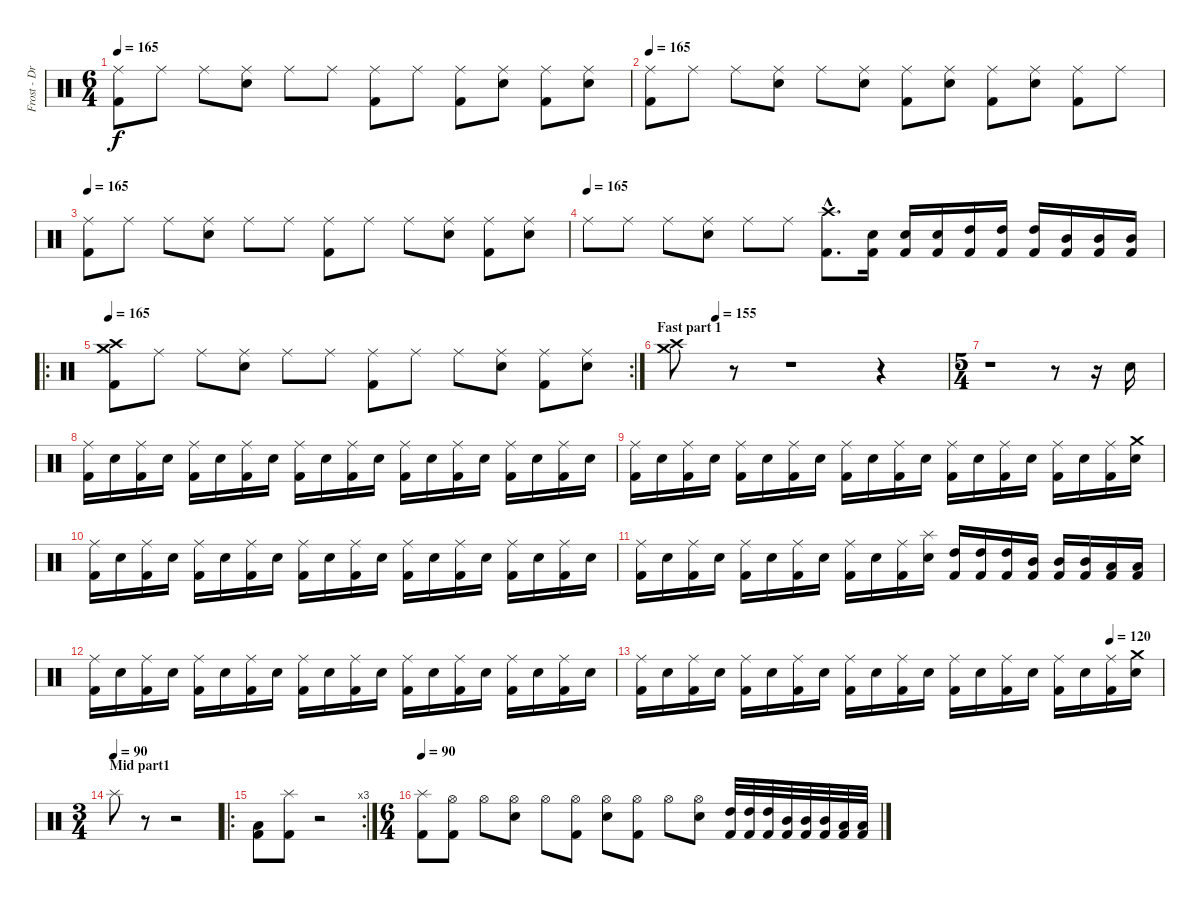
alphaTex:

\track ("Frost - Drums" "Frost - Dr") {instrument percussion}
\staff {score}
\articulation defaults
\ts (6 4)
\tempo 165
\clef neutral
\ks c
("Ride (middle)" "Kick (hit) 2").8{dy f} "Ride (middle)".8 "Ride (middle)".8 ("Ride (middle)" "Electric Snare (hit)").8 "Ride (middle)".8 "Ride (middle)".8 ("Ride (middle)" "Kick (hit) 2").8 "Ride (middle)".8 ("Ride (middle)" "Kick (hit) 2").8 ("Ride (middle)" "Electric Snare (hit)").8 ("Ride (middle)" "Kick (hit) 2").8 ("Ride (middle)" "Electric Snare (hit)").8 |
\tempo 165
("Ride (middle)" "Kick (hit) 2").8 "Ride (middle)".8 "Ride (middle)".8 ("Ride (middle)" "Electric Snare (hit)").8 "Ride (middle)".8 ("Ride (middle)" "Electric Snare (hit)").8 ("Ride (middle)" "Kick (hit) 2").8 ("Ride (middle)" "Electric Snare (hit)").8 ("Ride (middle)" "Kick (hit) 2").8 ("Ride (middle)" "Electric Snare (hit)").8 ("Ride (middle)" "Kick (hit) 2").8 "Ride (middle)".8 |
\tempo 165
("Ride (middle)" "Kick (hit) 2").8 "Ride (middle)".8 "Ride (middle)".8 ("Ride (middle)" "Electric Snare (hit)").8 "Ride (middle)".8 "Ride (middle)".8 ("Ride (middle)" "Kick (hit) 2").8 "Ride (middle)".8 "Ride (middle)".8 ("Ride (middle)" "Electric Snare (hit)").8 ("Ride (middle)" "Kick (hit) 2").8 ("Ride (middle)" "Electric Snare (hit)").8 |
\tempo (165)
"Ride (middle)".8 "Ride (middle)".8 "Ride (middle)".8 ("Ride (middle)" "Electric Snare (hit)").8 "Ride (middle)".8 "Ride (middle)".8 ("Crash high (hit)"{hac} "Kick (hit) 2"{hac}).8{d} ("Electric Snare (hit)" "Kick (hit) 2").16 ("Electric Snare (hit)" "Kick (hit) 2").16 ("Electric Snare (hit)" "Kick (hit) 2").16 ("High Tom (hit)" "Kick (hit) 2").16 ("High Tom (hit)" "Kick (hit) 2").16 ("High Tom (hit)" "Kick (hit) 2").16 ("Mid Tom (hit)" "Kick (hit) 2").16 ("Mid Tom (hit)" "Kick (hit) 2").16 ("Mid Tom (hit)" "Kick (hit) 2").16 |
\ro
\rc 2
\tempo 165
("Crash medium (hit)" "Crash high (hit)" "Kick (hit) 2").8 "Ride (middle)".8 "Ride (middle)".8 ("Ride (middle)" "Electric Snare (hit)").8 "Ride (middle)".8 "Ride (middle)".8 ("Ride (middle)" "Kick (hit) 2").8 "Ride (middle)".8 "Ride (middle)".8 ("Ride (middle)" "Electric Snare (hit)").8 ("Ride (middle)" "Kick (hit) 2").8 ("Ride (middle)" "Electric Snare (hit)").8 |
\section ("" "Fast part 1")
\tempo (155 0.16666666666666666)
("Crash high (hit)" "Crash medium (hit)").8 r.8 r.1 r.4 |
\ts (5 4)
r.1 r.8 r.16 "Electric Snare (hit)".16 |
("Ride (middle)" "Kick (hit) 2").16 "Electric Snare (hit)".16 ("Ride (middle)" "Kick (hit) 2").16 "Electric Snare (hit)".16 ("Ride (middle)" "Kick (hit) 2").16 "Electric Snare (hit)".16 ("Ride (middle)" "Kick (hit) 2").16 "Electric Snare (hit)".16 ("Ride (middle)" "Kick (hit) 2").16 "Electric Snare (hit)".16 ("Ride (middle)" "Kick (hit) 2").16 "Electric Snare (hit)".16 ("Ride (middle)" "Kick (hit) 2").16 "Electric Snare (hit)".16 ("Ride (middle)" "Kick (hit) 2").16 "Electric Snare (hit)".16 ("Ride (middle)" "Kick (hit) 2").16 "Electric Snare (hit)".16 ("Ride (middle)" "Kick (hit) 2").16 "Electric Snare (hit)".16 |
("Ride (middle)" "Kick (hit) 2").16 "Electric Snare (hit)".16 ("Ride (middle)" "Kick (hit) 2").16 "Electric Snare (hit)".16 ("Ride (middle)" "Kick (hit) 2").16 "Electric Snare (hit)".16 ("Ride (middle)" "Kick (hit) 2").16 "Electric Snare (hit)".16 ("Ride (middle)" "Kick (hit) 2").16 "Electric Snare (hit)".16 ("Ride (middle)" "Kick (hit) 2").16 "Electric Snare (hit)".16 ("Ride (middle)" "Kick (hit) 2").16 "Electric Snare (hit)".16 ("Ride (middle)" "Kick (hit) 2").16 "Electric Snare (hit)".16 ("Ride (middle)" "Kick (hit) 2").16 "Electric Snare (hit)".16 ("Ride (middle)" "Kick (hit) 2").16 ("Crash medium (hit)" "Electric Snare (hit)").16 |
("Ride (middle)" "Kick (hit) 2").16 "Electric Snare (hit)".16 ("Ride (middle)" "Kick (hit) 2").16 "Electric Snare (hit)".16 ("Ride (middle)" "Kick (hit) 2").16 "Electric Snare (hit)".16 ("Ride (middle)" "Kick (hit) 2").16 "Electric Snare (hit)".16 ("Ride (middle)" "Kick (hit) 2").16 "Electric Snare (hit)".16 ("Ride (middle)" "Kick (hit) 2").16 "Electric Snare (hit)".16 ("Ride (middle)" "Kick (hit) 2").16 "Electric Snare (hit)".16 ("Ride (middle)" "Kick (hit) 2").16 "Electric Snare (hit)".16 ("Ride (middle)" "Kick (hit) 2").16 "Electric Snare (hit)".16 ("Ride (middle)" "Kick (hit) 2").16 "Electric Snare (hit)".16 |
("Ride (middle)" "Kick (hit) 2").16 "Electric Snare (hit)".16 ("Ride (middle)" "Kick (hit) 2").16 "Electric Snare (hit)".16 ("Ride (middle)" "Kick (hit) 2").16 "Electric Snare (hit)".16 ("Ride (middle)" "Kick (hit) 2").16 "Electric Snare (hit)".16 ("Ride (middle)" "Kick (hit) 2").16 "Electric Snare (hit)".16 ("Ride (middle)" "Kick (hit) 2").16 ("Splash (hit)" "Electric Snare (hit)").16 ("High Tom (hit)" "Kick (hit) 2").16 ("High Tom (hit)" "Kick (hit) 2").16 ("High Tom (hit)" "Kick (hit) 2").16 ("Mid Tom (hit)" "Kick (hit) 2").16 ("Mid Tom (hit)" "Kick (hit) 2").16 ("Mid Tom (hit)" "Kick (hit) 2").16 ("Low Tom (hit)" "Kick (hit) 2").16 ("Low Tom (hit)" "Kick (hit) 2").16 |
("Ride (middle)" "Kick (hit) 2").16 "Electric Snare (hit)".16 ("Ride (middle)" "Kick (hit) 2").16 "Electric Snare (hit)".16 ("Ride (middle)" "Kick (hit) 2").16 "Electric Snare (hit)".16 ("Ride (middle)" "Kick (hit) 2").16 "Electric Snare (hit)".16 ("Ride (middle)" "Kick (hit) 2").16 "Electric Snare (hit)".16 ("Ride (middle)" "Kick (hit) 2").16 "Electric Snare (hit)".16 ("Ride (middle)" "Kick (hit) 2").16 "Electric Snare (hit)".16 ("Ride (middle)" "Kick (hit) 2").16 "Electric Snare (hit)".16 ("Ride (middle)" "Kick (hit) 2").16 "Electric Snare (hit)".16 ("Ride (middle)" "Kick (hit) 2").16 "Electric Snare (hit)".16 |
\tempo (120 0.9)
("Ride (middle)" "Kick (hit) 2").16 "Electric Snare (hit)".16 ("Ride (middle)" "Kick (hit) 2").16 "Electric Snare (hit)".16 ("Ride (middle)" "Kick (hit) 2").16 "Electric Snare (hit)".16 ("Ride (middle)" "Kick (hit) 2").16 "Electric Snare (hit)".16 ("Ride (middle)" "Kick (hit) 2").16 "Electric Snare (hit)".16 ("Ride (middle)" "Kick (hit) 2").16 "Electric Snare (hit)".16 ("Ride (middle)" "Kick (hit) 2").16 "Electric Snare (hit)".16 ("Ride (middle)" "Kick (hit) 2").16 "Electric Snare (hit)".16 ("Ride (middle)" "Kick (hit) 2").16 "Electric Snare (hit)".16 ("Ride (middle)" "Kick (hit) 2").16 ("Crash medium (hit)" "Electric Snare (hit)").16 |
\ts (3 4)
\section ("" "Mid part1")
\tempo (90)
"Splash (hit)".8 r.8 r.2 |
\ro
\rc 3
("Low Floor Tom (hit)" "Kick (hit) 2").8 ("Kick (hit) 2" "Splash (hit)").8 r.2 |
\ts (6 4)
\tempo 90
("Kick (hit) 2" "Splash (hit)").8 ("Hi-Hat (open)" "Kick (hit) 2").8 "Hi-Hat (open)".8 ("Hi-Hat (open)" "Electric Snare (hit)").8 "Hi-Hat (open)".8 ("Hi-Hat (open)" "Kick (hit) 2").8 ("Hi-Hat (open)" "Electric Snare (hit)").8 ("Hi-Hat (open)" "Kick (hit) 2").8 "Hi-Hat (open)".8 ("Hi-Hat (open)" "Electric Snare (hit)").8 ("High Tom (hit)" "Kick (hit) 2").32 ("High Tom (hit)" "Kick (hit) 2").32 ("High Tom (hit)" "Kick (hit) 2").32 ("Mid Tom (hit)" "Kick (hit) 2").32 ("Mid Tom (hit)" "Kick (hit) 2").32 ("Mid Tom (hit)" "Kick (hit) 2").32 ("Low Tom (hit)" "Kick (hit) 2").32 ("Low Tom (hit)" "Kick (hit) 2").32
